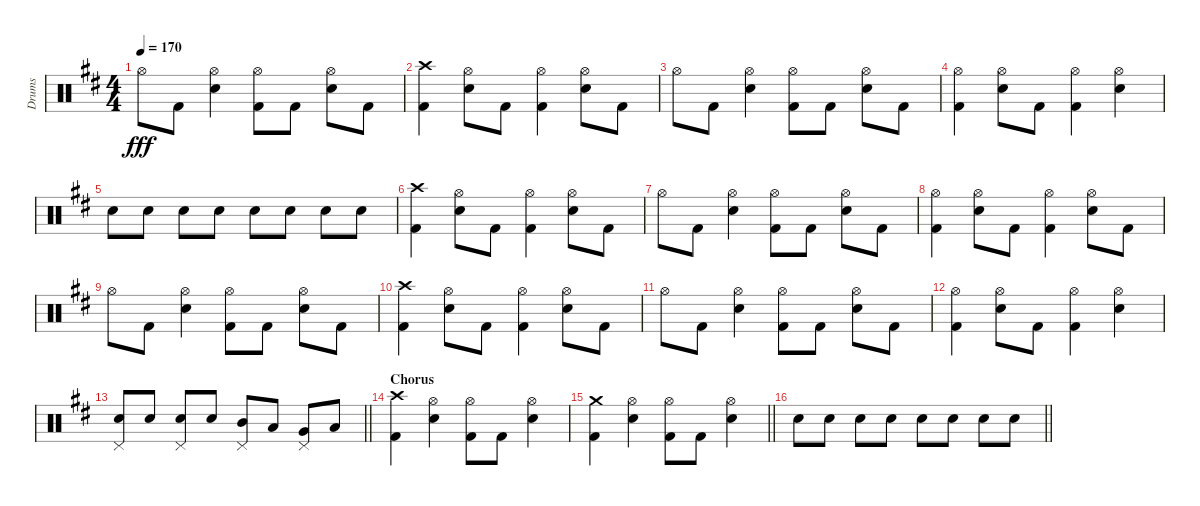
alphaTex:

\track ("Drums" "Drums") {instrument percussion}
\staff {score}
\articulation defaults
\ts (4 4)
\tempo 170
\clef neutral
\ks bminor "Hi-Hat (open)".8{dy fff} "Kick (hit) 2".8
("Hi-Hat (open)" "Snare (hit) 2").4 ("Hi-Hat (open)" "Kick (hit) 2").8 "Kick (hit) 2".8 ("Hi-Hat (open)" "Snare (hit) 2").8 "Kick (hit) 2".8 |
("Crash high (hit)" "Kick (hit) 2").4 ("Hi-Hat (open)" "Snare (hit) 2").8 "Kick (hit) 2".8 ("Hi-Hat (open)" "Kick (hit) 2").4 ("Hi-Hat (open)" "Snare (hit) 2").8 "Kick (hit) 2".8 |
"Hi-Hat (open)".8 "Kick (hit) 2".8 ("Hi-Hat (open)" "Snare (hit) 2").4 ("Hi-Hat (open)" "Kick (hit) 2").8 "Kick (hit) 2".8 ("Hi-Hat (open)" "Snare (hit) 2").8 "Kick (hit) 2".8 |
("Hi-Hat (open)" "Kick (hit) 2").4 ("Hi-Hat (open)" "Snare (hit) 2").8 "Kick (hit) 2".8 ("Hi-Hat (open)" "Kick (hit) 2").4 ("Hi-Hat (open)" "Snare (hit) 2").4 |
"Snare (hit) 2".8 "Snare (hit) 2".8 "Snare (hit) 2".8 "Snare (hit) 2".8 "Snare (hit) 2".8 "Snare (hit) 2".8 "Snare (hit) 2".8 "Snare (hit) 2".8 |
("Crash high (hit)" "Kick (hit) 2").4 ("Hi-Hat (open)" "Snare (hit) 2").8 "Kick (hit) 2".8 ("Hi-Hat (open)" "Kick (hit) 2").4 ("Hi-Hat (open)" "Snare (hit) 2").8 "Kick (hit) 2".8 |
"Hi-Hat (open)".8 "Kick (hit) 2".8 ("Hi-Hat (open)" "Snare (hit) 2").4 ("Hi-Hat (open)" "Kick (hit) 2").8 "Kick (hit) 2".8 ("Hi-Hat (open)" "Snare (hit) 2").8 "Kick (hit) 2".8 |
("Hi-Hat (open)" "Kick (hit) 2").4 ("Hi-Hat (open)" "Snare (hit) 2").8 "Kick (hit) 2".8 ("Hi-Hat (open)" "Kick (hit) 2").4 ("Hi-Hat (open)" "Snare (hit) 2").8 "Kick (hit) 2".8 |
"Hi-Hat (open)".8 "Kick (hit) 2".8 ("Hi-Hat (open)" "Snare (hit) 2").4 ("Hi-Hat (open)" "Kick (hit) 2").8 "Kick (hit) 2".8 ("Hi-Hat (open)" "Snare (hit) 2").8 "Kick (hit) 2".8 |
("Crash high (hit)" "Kick (hit) 2").4 ("Hi-Hat (open)" "Snare (hit) 2").8 "Kick (hit) 2".8 ("Hi-Hat (open)" "Kick (hit) 2").4 ("Hi-Hat (open)" "Snare (hit) 2").8 "Kick (hit) 2".8 |
"Hi-Hat (open)".8 "Kick (hit) 2".8 ("Hi-Hat (open)" "Snare (hit) 2").4 ("Hi-Hat (open)" "Kick (hit) 2").8 "Kick (hit) 2".8 ("Hi-Hat (open)" "Snare (hit) 2").8 "Kick (hit) 2".8 |
("Hi-Hat (open)" "Kick (hit) 2").4 ("Hi-Hat (open)" "Snare (hit) 2").8 "Kick (hit) 2".8 ("Hi-Hat (open)" "Kick (hit) 2").4 ("Hi-Hat (open)" "Snare (hit) 2").4 |
\barLineRight lightlight
("Pedal Hi-Hat (hit)" "Snare (hit) 2").8 "Snare (hit) 2".8 ("Pedal Hi-Hat (hit)" "Snare (hit) 2").8 "Snare (hit) 2".8 ("Pedal Hi-Hat (hit)" "Mid Tom (hit)").8 "Low Tom (hit)".8 ("Pedal Hi-Hat (hit)" "Very Low Tom (hit)").8 "Low Floor Tom (hit)".8 |
\section ("" "Chorus")
("Crash high (hit)" "Kick (hit) 2").4 ("Hi-Hat (open)" "Snare (hit) 2").4 ("Hi-Hat (open)" "Kick (hit) 2").8 "Kick (hit) 2".8 ("Hi-Hat (open)" "Snare (hit) 2").4 |
\barLineRight lightlight
("Crash medium (hit)" "Kick (hit) 2").4 ("Hi-Hat (open)" "Snare (hit) 2").4 ("Hi-Hat (open)" "Kick (hit) 2").8 "Kick (hit) 2".8 ("Hi-Hat (open)" "Snare (hit) 2").4 |
\barLineRight lightlight "Snare (hit) 2".8 "Snare (hit) 2".8 "Snare (hit) 2".8 "Snare (hit) 2".8 "Snare (hit) 2".8 "Snare (hit) 2".8 "Snare (hit) 2".8 "Snare (hit) 2".8
